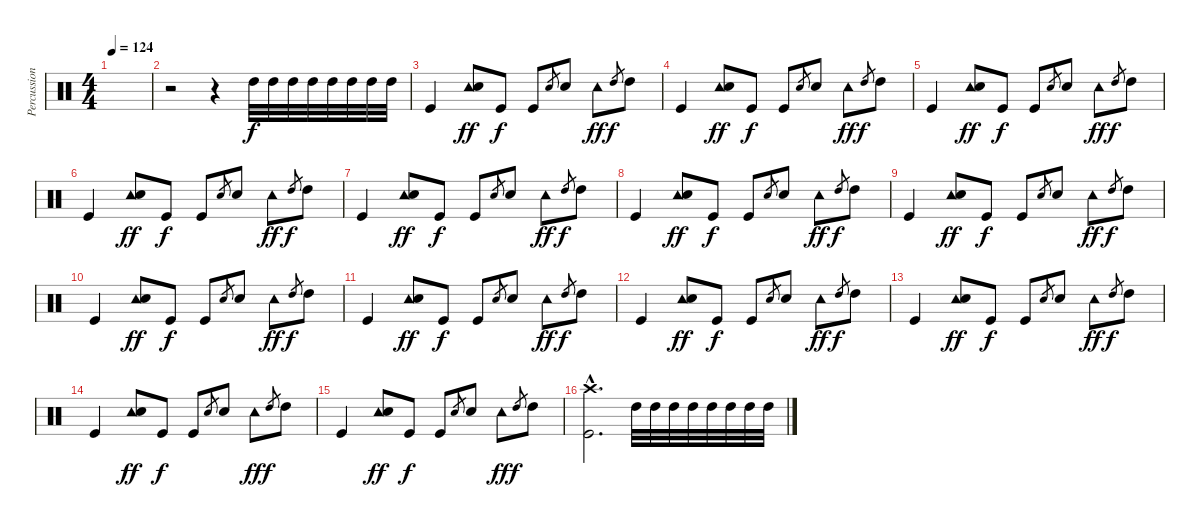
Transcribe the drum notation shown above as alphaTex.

\track ("Percussion" "Percussion") {instrument percussion}
\staff {score}
\articulation defaults
\ts (4 4)
\tempo 124
\clef neutral
\ks c
|
r.2 r.4 "High Tom (hit)".32 "High Tom (hit)".32 "High Tom (hit)".32 "High Tom (hit)".32 "High Tom (hit)".32 "High Tom (hit)".32 "High Tom (hit)".32 "High Tom (hit)".32 |
"Kick (hit)".4 ("Tambourine (hit)" "Snare (hit) 2").8{dy ff} "Kick (hit)".8{dy f} "Kick (hit)".8 "Snare (hit) 2".8{gr} "Snare (hit) 2".8 "Tambourine (hit)".8{dy ff} "High Tom (hit)".8{gr dy f} "High Tom (hit)".8 |
"Kick (hit)".4 ("Tambourine (hit)" "Snare (hit) 2").8{dy ff} "Kick (hit)".8{dy f} "Kick (hit)".8 "Snare (hit) 2".8{gr} "Snare (hit) 2".8 "Tambourine (hit)".8{dy ff} "High Tom (hit)".8{gr dy f} "High Tom (hit)".8 |
"Kick (hit)".4 ("Tambourine (hit)" "Snare (hit) 2").8{dy ff} "Kick (hit)".8{dy f} "Kick (hit)".8 "Snare (hit) 2".8{gr} "Snare (hit) 2".8 "Tambourine (hit)".8{dy ff} "High Tom (hit)".8{gr dy f} "High Tom (hit)".8 |
"Kick (hit)".4 ("Tambourine (hit)" "Snare (hit) 2").8{dy ff} "Kick (hit)".8{dy f} "Kick (hit)".8 "Snare (hit) 2".8{gr} "Snare (hit) 2".8 "Tambourine (hit)".8{dy ff} "High Tom (hit)".8{gr dy f} "High Tom (hit)".8 |
"Kick (hit)".4 ("Tambourine (hit)" "Snare (hit) 2").8{dy ff} "Kick (hit)".8{dy f} "Kick (hit)".8 "Snare (hit) 2".8{gr} "Snare (hit) 2".8 "Tambourine (hit)".8{dy ff} "High Tom (hit)".8{gr dy f} "High Tom (hit)".8 |
"Kick (hit)".4 ("Tambourine (hit)" "Snare (hit) 2").8{dy ff} "Kick (hit)".8{dy f} "Kick (hit)".8 "Snare (hit) 2".8{gr} "Snare (hit) 2".8 "Tambourine (hit)".8{dy ff} "High Tom (hit)".8{gr dy f} "High Tom (hit)".8 |
"Kick (hit)".4 ("Tambourine (hit)" "Snare (hit) 2").8{dy ff} "Kick (hit)".8{dy f} "Kick (hit)".8 "Snare (hit) 2".8{gr} "Snare (hit) 2".8 "Tambourine (hit)".8{dy ff} "High Tom (hit)".8{gr dy f} "High Tom (hit)".8 |
"Kick (hit)".4 ("Tambourine (hit)" "Snare (hit) 2").8{dy ff} "Kick (hit)".8{dy f} "Kick (hit)".8 "Snare (hit) 2".8{gr} "Snare (hit) 2".8 "Tambourine (hit)".8{dy ff} "High Tom (hit)".8{gr dy f} "High Tom (hit)".8 |
"Kick (hit)".4 ("Tambourine (hit)" "Snare (hit) 2").8{dy ff} "Kick (hit)".8{dy f} "Kick (hit)".8 "Snare (hit) 2".8{gr} "Snare (hit) 2".8 "Tambourine (hit)".8{dy ff} "High Tom (hit)".8{gr dy f} "High Tom (hit)".8 |
"Kick (hit)".4 ("Tambourine (hit)" "Snare (hit) 2").8{dy ff} "Kick (hit)".8{dy f} "Kick (hit)".8 "Snare (hit) 2".8{gr} "Snare (hit) 2".8 "Tambourine (hit)".8{dy ff} "High Tom (hit)".8{gr dy f} "High Tom (hit)".8 |
"Kick (hit)".4 ("Tambourine (hit)" "Snare (hit) 2").8{dy ff} "Kick (hit)".8{dy f} "Kick (hit)".8 "Snare (hit) 2".8{gr} "Snare (hit) 2".8 "Tambourine (hit)".8{dy ff} "High Tom (hit)".8{gr dy f} "High Tom (hit)".8 |
"Kick (hit)".4 ("Tambourine (hit)" "Snare (hit) 2").8{dy ff} "Kick (hit)".8{dy f} "Kick (hit)".8 "Snare (hit) 2".8{gr} "Snare (hit) 2".8 "Tambourine (hit)".8{dy ff} "High Tom (hit)".8{gr dy f} "High Tom (hit)".8 |
"Kick (hit)".4 ("Tambourine (hit)" "Snare (hit) 2").8{dy ff} "Kick (hit)".8{dy f} "Kick (hit)".8 "Snare (hit) 2".8{gr} "Snare (hit) 2".8 "Tambourine (hit)".8{dy ff} "High Tom (hit)".8{gr dy f} "High Tom (hit)".8 |
("Crash high (hit)"{hac} "Kick (hit)"{hac}).2{d} "High Tom (hit)".32 "High Tom (hit)".32 "High Tom (hit)".32 "High Tom (hit)".32 "High Tom (hit)".32 "High Tom (hit)".32 "High Tom (hit)".32 "High Tom (hit)".32
